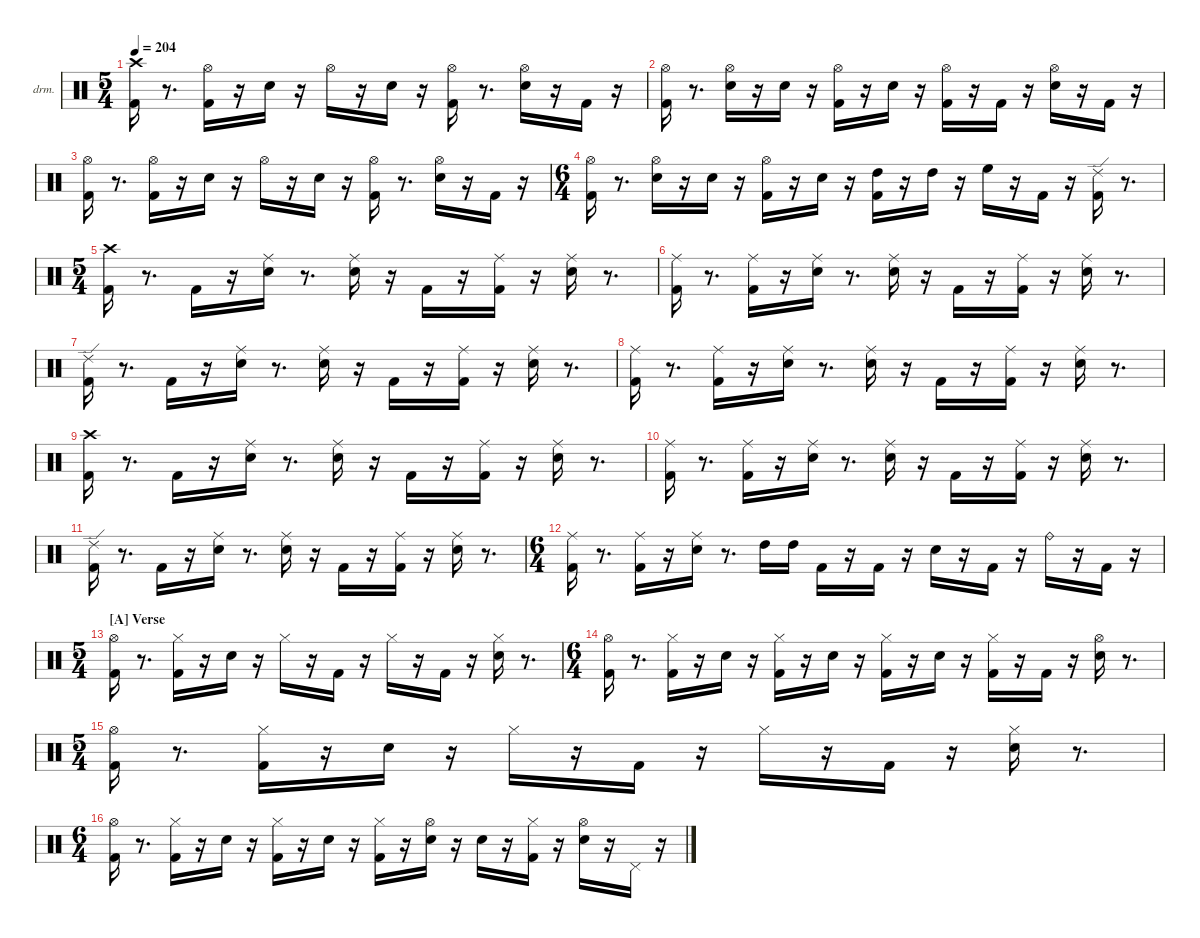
\hideDynamics
\bracketExtendMode nobrackets
\firstSystemTrackNameOrientation horizontal
\track ("drums" "drm.") {instrument percussion}
\staff {score}
\articulation defaults
\ts (5 4)
\tempo 204
\clef neutral
\ks aminor
("Kick (hit) 2" "Crash high (hit)"{acc #}).16{dy fff beam Down} r.8{d beam Down} ("Kick (hit) 2" "Hi-Hat (open)"{acc #}).16{dy f beam Down} r.16{beam Down} "Snare (hit) 2".16{dy ff beam Down} r.16{beam Down} "Hi-Hat (open)"{acc #}.16{dy f beam Down} r.16{beam Down} "Snare (hit) 2".16{beam Down} r.16{beam Down} ("Kick (hit) 2" "Hi-Hat (open)"{acc #}).16{dy ff beam Down} r.8{d beam Down} ("Snare (hit) 2" "Hi-Hat (open)"{acc #}).16{beam Down} r.16{beam Down} "Kick (hit) 2".16{dy mf beam Down} r.16{beam Down} |
("Kick (hit) 2" "Hi-Hat (open)"{acc #}).16{dy fff beam Down} r.8{d beam Down} ("Snare (hit) 2" "Hi-Hat (open)"{acc #}).16{dy ff beam Down} r.16{beam Down} "Snare (hit) 2".16{dy mp beam Down} r.16{beam Down} ("Kick (hit) 2" "Hi-Hat (open)"{acc #}).16{dy ff beam Down} r.16{beam Down} "Snare (hit) 2".16{dy mf beam Down} r.16{beam Down} ("Kick (hit) 2" "Hi-Hat (open)"{acc #}).16{beam Down} r.16{beam Down} "Kick (hit) 2".16{dy fff beam Down} r.16{beam Down} ("Snare (hit) 2" "Hi-Hat (open)"{acc #}).16{dy ff beam Down} r.16{beam Down} "Kick (hit) 2".16{dy mp beam Down} r.16{beam Down} |
("Kick (hit) 2" "Hi-Hat (open)"{acc #}).16{dy fff beam Down} r.8{d beam Down} ("Kick (hit) 2" "Hi-Hat (open)"{acc #}).16{dy f beam Down} r.16{beam Down} "Snare (hit) 2".16{dy ff beam Down} r.16{beam Down} "Hi-Hat (open)"{acc #}.16{dy f beam Down} r.16{beam Down} "Snare (hit) 2".16{beam Down} r.16{beam Down} ("Kick (hit) 2" "Hi-Hat (open)"{acc #}).16{dy ff beam Down} r.8{d beam Down} ("Snare (hit) 2" "Hi-Hat (open)"{acc #}).16{beam Down} r.16{beam Down} "Kick (hit) 2".16{dy mf beam Down} r.16{beam Down} |
\ts (6 4)
("Kick (hit) 2" "Hi-Hat (open)"{acc #}).16{dy fff beam Down} r.8{d beam Down} ("Snare (hit) 2" "Hi-Hat (open)"{acc #}).16{dy ff beam Down} r.16{beam Down} "Snare (hit) 2".16{dy mp beam Down} r.16{beam Down} ("Kick (hit) 2" "Hi-Hat (open)"{acc #}).16{dy ff beam Down} r.16{beam Down} "Snare (hit) 2".16{dy mf beam Down} r.16{beam Down} ("Kick (hit) 2" "High Tom (hit)").16{dy fff beam Down} r.16{beam Down} "High Tom (hit)".16{dy mp beam Down} r.16{beam Down} "High Floor Tom (hit)".16{dy ff beam Down} r.16{beam Down} "Kick (hit) 2".16{dy mp beam Down} r.16{beam Down} ("Kick (hit) 2" "Ride (edge) 2").16{dy ff beam Down} r.8{d beam Down} |
\ts (5 4)
("Kick (hit) 2" "Crash high (hit)"{acc #}).16{dy fff beam Down} r.8{d beam Down} "Kick (hit) 2".16{dy ff beam Down} r.16{beam Down} ("Snare (hit) 2" "Ride (middle)"{acc #}).16{dy fff beam Down} r.8{d beam Down} ("Snare (hit) 2" "Ride (middle)"{acc #}).16{dy mf beam Down} r.16{beam Down} "Kick (hit) 2".16{beam Down} r.16{beam Down} ("Kick (hit) 2" "Ride (middle)"{acc #}).16{dy fff beam Down} r.16{beam Down} ("Snare (hit) 2" "Ride (middle)"{acc #}).16{dy ff beam Down} r.8{d beam Down} |
("Kick (hit) 2" "Ride (middle)"{acc #}).16{dy fff beam Down} r.8{d beam Down} ("Kick (hit) 2" "Ride (middle)"{acc #}).16{dy ff beam Down} r.16{beam Down} ("Snare (hit) 2" "Ride (middle)"{acc #}).16{dy fff beam Down} r.8{d beam Down} ("Snare (hit) 2" "Ride (middle)"{acc #}).16{dy mf beam Down} r.16{beam Down} "Kick (hit) 2".16{beam Down} r.16{beam Down} ("Kick (hit) 2" "Ride (middle)"{acc #}).16{dy fff beam Down} r.16{beam Down} ("Snare (hit) 2" "Ride (middle)"{acc #}).16{dy ff beam Down} r.8{d beam Down} |
("Kick (hit) 2" "Ride (edge) 2").16{dy fff beam Down} r.8{d beam Down} "Kick (hit) 2".16{dy ff beam Down} r.16{beam Down} ("Snare (hit) 2" "Ride (middle)"{acc #}).16{dy fff beam Down} r.8{d beam Down} ("Snare (hit) 2" "Ride (middle)"{acc #}).16{dy mf beam Down} r.16{beam Down} "Kick (hit) 2".16{beam Down} r.16{beam Down} ("Kick (hit) 2" "Ride (middle)"{acc #}).16{dy fff beam Down} r.16{beam Down} ("Snare (hit) 2" "Ride (middle)"{acc #}).16{dy ff beam Down} r.8{d beam Down} |
("Kick (hit) 2" "Ride (middle)"{acc #}).16{dy fff beam Down} r.8{d beam Down} ("Kick (hit) 2" "Ride (middle)"{acc #}).16{dy ff beam Down} r.16{beam Down} ("Snare (hit) 2" "Ride (middle)"{acc #}).16{dy fff beam Down} r.8{d beam Down} ("Snare (hit) 2" "Ride (middle)"{acc #}).16{dy mf beam Down} r.16{beam Down} "Kick (hit) 2".16{beam Down} r.16{beam Down} ("Kick (hit) 2" "Ride (middle)"{acc #}).16{dy fff beam Down} r.16{beam Down} ("Snare (hit) 2" "Ride (middle)"{acc #}).16{dy ff beam Down} r.8{d beam Down} |
("Kick (hit) 2" "Crash high (hit)"{acc #}).16{dy fff beam Down} r.8{d beam Down} "Kick (hit) 2".16{dy ff beam Down} r.16{beam Down} ("Snare (hit) 2" "Ride (middle)"{acc #}).16{dy fff beam Down} r.8{d beam Down} ("Snare (hit) 2" "Ride (middle)"{acc #}).16{dy mf beam Down} r.16{beam Down} "Kick (hit) 2".16{beam Down} r.16{beam Down} ("Kick (hit) 2" "Ride (middle)"{acc #}).16{dy fff beam Down} r.16{beam Down} ("Snare (hit) 2" "Ride (middle)"{acc #}).16{dy ff beam Down} r.8{d beam Down} |
("Kick (hit) 2" "Ride (middle)"{acc #}).16{dy fff beam Down} r.8{d beam Down} ("Kick (hit) 2" "Ride (middle)"{acc #}).16{dy ff beam Down} r.16{beam Down} ("Snare (hit) 2" "Ride (middle)"{acc #}).16{dy fff beam Down} r.8{d beam Down} ("Snare (hit) 2" "Ride (middle)"{acc #}).16{dy mf beam Down} r.16{beam Down} "Kick (hit) 2".16{beam Down} r.16{beam Down} ("Kick (hit) 2" "Ride (middle)"{acc #}).16{dy fff beam Down} r.16{beam Down} ("Snare (hit) 2" "Ride (middle)"{acc #}).16{dy ff beam Down} r.8{d beam Down} |
("Kick (hit) 2" "Ride (edge) 2").16{dy fff beam Down} r.8{d beam Down} "Kick (hit) 2".16{dy ff beam Down} r.16{beam Down} ("Snare (hit) 2" "Ride (middle)"{acc #}).16{dy fff beam Down} r.8{d beam Down} ("Snare (hit) 2" "Ride (middle)"{acc #}).16{dy mf beam Down} r.16{beam Down} "Kick (hit) 2".16{beam Down} r.16{beam Down} ("Kick (hit) 2" "Ride (middle)"{acc #}).16{dy fff beam Down} r.16{beam Down} ("Snare (hit) 2" "Ride (middle)"{acc #}).16{dy ff beam Down} r.8{d beam Down} |
\ts (6 4)
("Kick (hit) 2" "Ride (middle)"{acc #}).16{dy fff beam Down} r.8{d beam Down} ("Kick (hit) 2" "Ride (middle)"{acc #}).16{dy ff beam Down} r.16{beam Down} ("Snare (hit) 2" "Ride (middle)"{acc #}).16{dy fff beam Down} r.8{d beam Down} "High Tom (hit)".16{dy ff beam Down} "High Tom (hit)".16{dy mf beam Down} "Kick (hit) 2".16{beam Down} r.16{beam Down} "Kick (hit) 2".16{dy fff beam Down} r.16{beam Down} "Snare (hit) 2".16{beam Down} r.16{beam Down} "Kick (hit) 2".16{dy mf beam Down} r.16{beam Down} "Ride (bell)".16{dy f beam Down} r.16{beam Down} "Kick (hit) 2".16{dy mf beam Down} r.16{beam Down} |
\ts (5 4)
\section ("A" "Verse")
("Kick (hit) 2" "Hi-Hat (open)"{acc #}).16{dy fff beam Down} r.8{d beam Down} ("Kick (hit) 2" "Hi-Hat (closed)"{acc #}).16{dy ff beam Down} r.16{beam Down} "Snare (hit) 2".16{dy f beam Down} r.16{beam Down} "Hi-Hat (closed)"{acc #}.16{dy ff beam Down} r.16{beam Down} "Kick (hit) 2".16{beam Down} r.16{beam Down} "Hi-Hat (closed)"{acc #}.16{dy f beam Down} r.16{beam Down} "Kick (hit) 2".16{dy ff beam Down} r.16{beam Down} ("Snare (hit) 2" "Hi-Hat (closed)"{acc #}).16{dy f beam Down} r.8{d beam Down} |
\ts (6 4)
("Kick (hit) 2" "Hi-Hat (open)"{acc #}).16{dy ff beam Down} r.8{d beam Down} ("Kick (hit) 2" "Hi-Hat (closed)"{acc #}).16{beam Down} r.16{beam Down} "Snare (hit) 2".16{dy f beam Down} r.16{beam Down} ("Kick (hit) 2" "Hi-Hat (closed)"{acc #}).16{dy ff beam Down} r.16{beam Down} "Snare (hit) 2".16{beam Down} r.16{beam Down} ("Kick (hit) 2" "Hi-Hat (closed)"{acc #}).16{beam Down} r.16{beam Down} "Snare (hit) 2".16{dy mf beam Down} r.16{beam Down} ("Kick (hit) 2" "Hi-Hat (closed)"{acc #}).16{dy f beam Down} r.16{beam Down} "Kick (hit) 2".16{dy ff beam Down} r.16{beam Down} ("Snare (hit) 2" "Hi-Hat (open)"{acc #}).16{beam Down} r.8{d beam Down} |
\ts (5 4)
("Kick (hit) 2" "Hi-Hat (open)"{acc #}).16{beam Down} r.8{d beam Down} ("Kick (hit) 2" "Hi-Hat (closed)"{acc #}).16{beam Down} r.16{beam Down} "Snare (hit) 2".16{dy f beam Down} r.16{beam Down} "Hi-Hat (closed)"{acc #}.16{dy ff beam Down} r.16{beam Down} "Kick (hit) 2".16{beam Down} r.16{beam Down} "Hi-Hat (closed)"{acc #}.16{beam Down} r.16{beam Down} "Kick (hit) 2".16{beam Down} r.16{beam Down} ("Snare (hit) 2" "Hi-Hat (closed)"{acc #}).16{beam Down} r.8{d beam Down} |
\ts (6 4)
("Kick (hit) 2" "Hi-Hat (open)"{acc #}).16{beam Down} r.8{d beam Down} ("Kick (hit) 2" "Hi-Hat (closed)"{acc #}).16{beam Down} r.16{beam Down} "Snare (hit) 2".16{dy f beam Down} r.16{beam Down} ("Kick (hit) 2" "Hi-Hat (closed)"{acc #}).16{dy ff beam Down} r.16{beam Down} "Snare (hit) 2".16{beam Down} r.16{beam Down} ("Kick (hit) 2" "Hi-Hat (closed)"{acc #}).16{dy f beam Down} r.16{beam Down} ("Snare (hit) 2" "Hi-Hat (open)"{acc #}).16{dy ff beam Down} r.16{beam Down} "Snare (hit) 2".16{dy mf beam Down} r.16{beam Down} ("Kick (hit) 2" "Hi-Hat (closed)"{acc #}).16{dy ff beam Down} r.16{beam Down} ("Snare (hit) 2" "Hi-Hat (open)"{acc #}).16{beam Down} r.16{beam Down} "Pedal Hi-Hat (hit)"{acc #}.16{dy f beam Down} r.16{beam Down}
